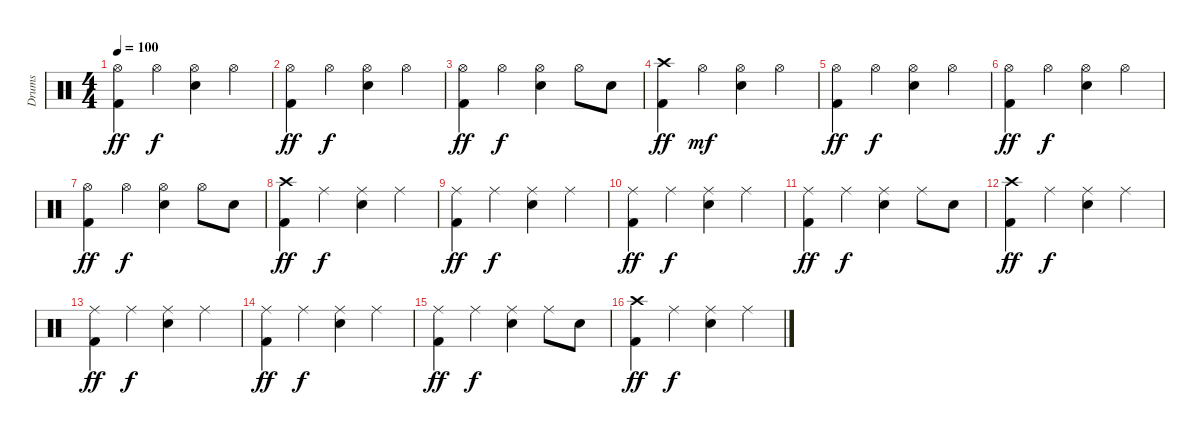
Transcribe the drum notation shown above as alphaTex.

\track ("Drums" "Drums") {instrument percussion}
\staff {score}
\articulation defaults
\ts (4 4)
\tempo 100
\clef neutral
\ks c
("Hi-Hat (open)" "Kick (hit) 2").4{dy ff} "Hi-Hat (open)".4{dy f} ("Hi-Hat (open)" "Electric Snare (hit)").4 "Hi-Hat (open)".4 |
("Hi-Hat (open)" "Kick (hit) 2").4{dy ff} "Hi-Hat (open)".4{dy f} ("Hi-Hat (open)" "Electric Snare (hit)").4 "Hi-Hat (open)".4 |
("Hi-Hat (open)" "Kick (hit) 2").4{dy ff} "Hi-Hat (open)".4{dy f} ("Hi-Hat (open)" "Electric Snare (hit)").4 "Hi-Hat (open)".8 "Electric Snare (hit)".8 |
("Crash high (hit)" "Kick (hit) 2").4{dy ff} "Hi-Hat (open)".4{dy mf} ("Hi-Hat (open)" "Electric Snare (hit)").4 "Hi-Hat (open)".4 |
("Hi-Hat (open)" "Kick (hit) 2").4{dy ff} "Hi-Hat (open)".4{dy f} ("Hi-Hat (open)" "Electric Snare (hit)").4 "Hi-Hat (open)".4 |
("Hi-Hat (open)" "Kick (hit) 2").4{dy ff} "Hi-Hat (open)".4{dy f} ("Hi-Hat (open)" "Electric Snare (hit)").4 "Hi-Hat (open)".4 |
("Hi-Hat (open)" "Kick (hit) 2").4{dy ff} "Hi-Hat (open)".4{dy f} ("Hi-Hat (open)" "Electric Snare (hit)").4 "Hi-Hat (open)".8 "Electric Snare (hit)".8 |
("Crash high (hit)" "Kick (hit) 2").4{dy ff} "Ride (middle)".4{dy f} ("Ride (middle)" "Electric Snare (hit)").4 "Ride (middle)".4 |
("Ride (middle)" "Kick (hit) 2").4{dy ff} "Ride (middle)".4{dy f} ("Ride (middle)" "Electric Snare (hit)").4 "Ride (middle)".4 |
("Ride (middle)" "Kick (hit) 2").4{dy ff} "Ride (middle)".4{dy f} ("Ride (middle)" "Electric Snare (hit)").4 "Ride (middle)".4 |
("Ride (middle)" "Kick (hit) 2").4{dy ff} "Ride (middle)".4{dy f} ("Ride (middle)" "Electric Snare (hit)").4 "Ride (middle)".8 "Electric Snare (hit)".8 |
("Crash high (hit)" "Kick (hit) 2").4{dy ff} "Ride (middle)".4{dy f} ("Ride (middle)" "Electric Snare (hit)").4 "Ride (middle)".4 |
("Ride (middle)" "Kick (hit) 2").4{dy ff} "Ride (middle)".4{dy f} ("Ride (middle)" "Electric Snare (hit)").4 "Ride (middle)".4 |
("Ride (middle)" "Kick (hit) 2").4{dy ff} "Ride (middle)".4{dy f} ("Ride (middle)" "Electric Snare (hit)").4 "Ride (middle)".4 |
("Ride (middle)" "Kick (hit) 2").4{dy ff} "Ride (middle)".4{dy f} ("Ride (middle)" "Electric Snare (hit)").4 "Ride (middle)".8 "Electric Snare (hit)".8 |
("Crash high (hit)" "Kick (hit) 2").4{dy ff} "Ride (middle)".4{dy f} ("Ride (middle)" "Electric Snare (hit)").4 "Ride (middle)".4
